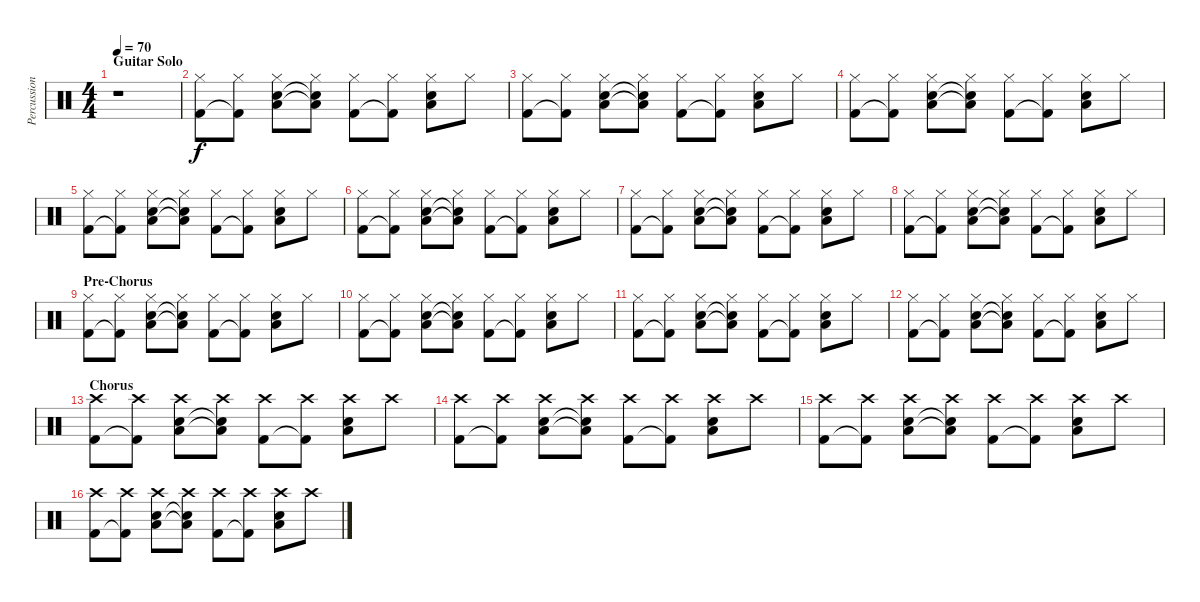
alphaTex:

\track ("Percussions" "Percussion") {instrument percussion}
\staff {score}
\articulation defaults
\ts (4 4)
\section ("" "Guitar Solo")
\tempo 70
\clef neutral
\ks c
r.1{dy f} |
("Hi-Hat (closed)" "Kick (hit) 2").8 ("Hi-Hat (closed)" "Kick (hit) 2"{t}).8 ("Hi-Hat (closed)" "Electric Snare (hit)" "Low Tom (hit)").8 ("Hi-Hat (closed)" "Electric Snare (hit)"{t} "Low Tom (hit)"{t}).8 ("Hi-Hat (closed)" "Kick (hit) 2").8 ("Hi-Hat (closed)" "Kick (hit) 2"{t}).8 ("Hi-Hat (closed)" "Electric Snare (hit)" "Low Tom (hit)").8 "Hi-Hat (closed)".8 |
("Hi-Hat (closed)" "Kick (hit) 2").8 ("Hi-Hat (closed)" "Kick (hit) 2"{t}).8 ("Hi-Hat (closed)" "Electric Snare (hit)" "Low Tom (hit)").8 ("Hi-Hat (closed)" "Electric Snare (hit)"{t} "Low Tom (hit)"{t}).8 ("Hi-Hat (closed)" "Kick (hit) 2").8 ("Hi-Hat (closed)" "Kick (hit) 2"{t}).8 ("Hi-Hat (closed)" "Electric Snare (hit)" "Low Tom (hit)").8 "Hi-Hat (closed)".8 |
("Hi-Hat (closed)" "Kick (hit) 2").8 ("Hi-Hat (closed)" "Kick (hit) 2"{t}).8 ("Hi-Hat (closed)" "Electric Snare (hit)" "Low Tom (hit)").8 ("Hi-Hat (closed)" "Electric Snare (hit)"{t} "Low Tom (hit)"{t}).8 ("Hi-Hat (closed)" "Kick (hit) 2").8 ("Hi-Hat (closed)" "Kick (hit) 2"{t}).8 ("Hi-Hat (closed)" "Electric Snare (hit)" "Low Tom (hit)").8 "Hi-Hat (closed)".8 |
("Hi-Hat (closed)" "Kick (hit) 2").8 ("Hi-Hat (closed)" "Kick (hit) 2"{t}).8 ("Hi-Hat (closed)" "Electric Snare (hit)" "Low Tom (hit)").8 ("Hi-Hat (closed)" "Electric Snare (hit)"{t} "Low Tom (hit)"{t}).8 ("Hi-Hat (closed)" "Kick (hit) 2").8 ("Hi-Hat (closed)" "Kick (hit) 2"{t}).8 ("Hi-Hat (closed)" "Electric Snare (hit)" "Low Tom (hit)").8 "Hi-Hat (closed)".8 |
("Hi-Hat (closed)" "Kick (hit) 2").8 ("Hi-Hat (closed)" "Kick (hit) 2"{t}).8 ("Hi-Hat (closed)" "Electric Snare (hit)" "Low Tom (hit)").8 ("Hi-Hat (closed)" "Electric Snare (hit)"{t} "Low Tom (hit)"{t}).8 ("Hi-Hat (closed)" "Kick (hit) 2").8 ("Hi-Hat (closed)" "Kick (hit) 2"{t}).8 ("Hi-Hat (closed)" "Electric Snare (hit)" "Low Tom (hit)").8 "Hi-Hat (closed)".8 |
("Hi-Hat (closed)" "Kick (hit) 2").8 ("Hi-Hat (closed)" "Kick (hit) 2"{t}).8 ("Hi-Hat (closed)" "Electric Snare (hit)" "Low Tom (hit)").8 ("Hi-Hat (closed)" "Electric Snare (hit)"{t} "Low Tom (hit)"{t}).8 ("Hi-Hat (closed)" "Kick (hit) 2").8 ("Hi-Hat (closed)" "Kick (hit) 2"{t}).8 ("Hi-Hat (closed)" "Electric Snare (hit)" "Low Tom (hit)").8 "Hi-Hat (closed)".8 |
("Hi-Hat (closed)" "Kick (hit) 2").8 ("Hi-Hat (closed)" "Kick (hit) 2"{t}).8 ("Hi-Hat (closed)" "Electric Snare (hit)" "Low Tom (hit)").8 ("Hi-Hat (closed)" "Electric Snare (hit)"{t} "Low Tom (hit)"{t}).8 ("Hi-Hat (closed)" "Kick (hit) 2").8 ("Hi-Hat (closed)" "Kick (hit) 2"{t}).8 ("Hi-Hat (closed)" "Electric Snare (hit)" "Low Tom (hit)").8 "Hi-Hat (closed)".8 |
\section ("" "Pre-Chorus")
("Hi-Hat (closed)" "Kick (hit) 2").8 ("Hi-Hat (closed)" "Kick (hit) 2"{t}).8 ("Hi-Hat (closed)" "Electric Snare (hit)" "Low Tom (hit)").8 ("Hi-Hat (closed)" "Electric Snare (hit)"{t} "Low Tom (hit)"{t}).8 ("Hi-Hat (closed)" "Kick (hit) 2").8 ("Hi-Hat (closed)" "Kick (hit) 2"{t}).8 ("Hi-Hat (closed)" "Electric Snare (hit)" "Low Tom (hit)").8 "Hi-Hat (closed)".8 |
("Hi-Hat (closed)" "Kick (hit) 2").8 ("Hi-Hat (closed)" "Kick (hit) 2"{t}).8 ("Hi-Hat (closed)" "Electric Snare (hit)" "Low Tom (hit)").8 ("Hi-Hat (closed)" "Electric Snare (hit)"{t} "Low Tom (hit)"{t}).8 ("Hi-Hat (closed)" "Kick (hit) 2").8 ("Hi-Hat (closed)" "Kick (hit) 2"{t}).8 ("Hi-Hat (closed)" "Electric Snare (hit)" "Low Tom (hit)").8 "Hi-Hat (closed)".8 |
("Hi-Hat (closed)" "Kick (hit) 2").8 ("Hi-Hat (closed)" "Kick (hit) 2"{t}).8 ("Hi-Hat (closed)" "Electric Snare (hit)" "Low Tom (hit)").8 ("Hi-Hat (closed)" "Electric Snare (hit)"{t} "Low Tom (hit)"{t}).8 ("Hi-Hat (closed)" "Kick (hit) 2").8 ("Hi-Hat (closed)" "Kick (hit) 2"{t}).8 ("Hi-Hat (closed)" "Electric Snare (hit)" "Low Tom (hit)").8 "Hi-Hat (closed)".8 |
("Hi-Hat (closed)" "Kick (hit) 2").8 ("Hi-Hat (closed)" "Kick (hit) 2"{t}).8 ("Hi-Hat (closed)" "Electric Snare (hit)" "Low Tom (hit)").8 ("Hi-Hat (closed)" "Electric Snare (hit)"{t} "Low Tom (hit)"{t}).8 ("Hi-Hat (closed)" "Kick (hit) 2").8 ("Hi-Hat (closed)" "Kick (hit) 2"{t}).8 ("Hi-Hat (closed)" "Electric Snare (hit)" "Low Tom (hit)").8 "Hi-Hat (closed)".8 |
\section ("" "Chorus")
("Crash high (hit)" "Kick (hit) 2").8 ("Crash high (hit)" "Kick (hit) 2"{t}).8 ("Crash high (hit)" "Electric Snare (hit)" "Low Tom (hit)").8 ("Crash high (hit)" "Electric Snare (hit)"{t} "Low Tom (hit)"{t}).8 ("Crash high (hit)" "Kick (hit) 2").8 ("Crash high (hit)" "Kick (hit) 2"{t}).8 ("Crash high (hit)" "Electric Snare (hit)" "Low Tom (hit)").8 "Crash high (hit)".8 |
("Crash high (hit)" "Kick (hit) 2").8 ("Crash high (hit)" "Kick (hit) 2"{t}).8 ("Crash high (hit)" "Electric Snare (hit)" "Low Tom (hit)").8 ("Crash high (hit)" "Electric Snare (hit)"{t} "Low Tom (hit)"{t}).8 ("Crash high (hit)" "Kick (hit) 2").8 ("Crash high (hit)" "Kick (hit) 2"{t}).8 ("Crash high (hit)" "Electric Snare (hit)" "Low Tom (hit)").8 "Crash high (hit)".8 |
("Crash high (hit)" "Kick (hit) 2").8 ("Crash high (hit)" "Kick (hit) 2"{t}).8 ("Crash high (hit)" "Electric Snare (hit)" "Low Tom (hit)").8 ("Crash high (hit)" "Electric Snare (hit)"{t} "Low Tom (hit)"{t}).8 ("Crash high (hit)" "Kick (hit) 2").8 ("Crash high (hit)" "Kick (hit) 2"{t}).8 ("Crash high (hit)" "Electric Snare (hit)" "Low Tom (hit)").8 "Crash high (hit)".8 |
("Crash high (hit)" "Kick (hit) 2").8 ("Crash high (hit)" "Kick (hit) 2"{t}).8 ("Crash high (hit)" "Electric Snare (hit)" "Low Tom (hit)").8 ("Crash high (hit)" "Electric Snare (hit)"{t} "Low Tom (hit)"{t}).8 ("Crash high (hit)" "Kick (hit) 2").8 ("Crash high (hit)" "Kick (hit) 2"{t}).8 ("Crash high (hit)" "Electric Snare (hit)" "Low Tom (hit)").8 "Crash high (hit)".8
